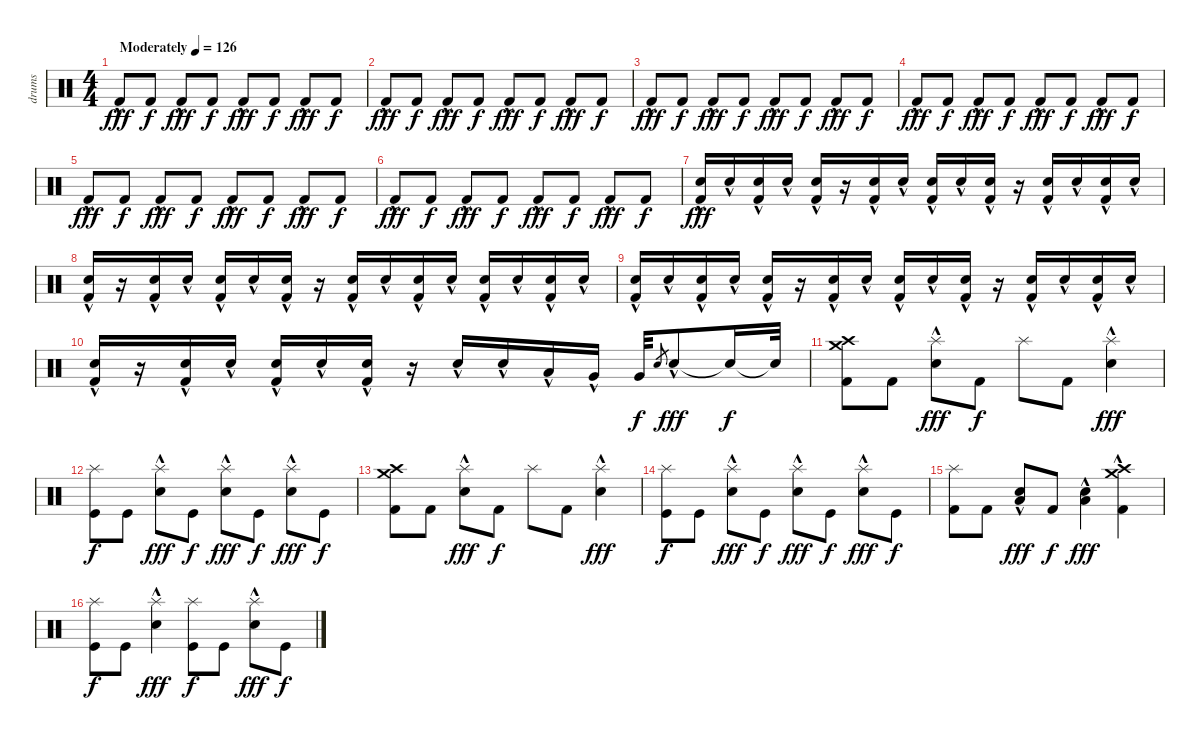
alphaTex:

\track ("drums" "drums") {instrument percussion}
\staff {score}
\articulation defaults
\ts (4 4)
\tempo (126 "Moderately")
\clef neutral
\ks c "Kick (hit) 2"{hac}.8{dy fff} "Kick (hit) 2".8{dy f} "Kick (hit) 2"{hac}.8{dy fff} "Kick (hit) 2".8{dy f} "Kick (hit) 2"{hac}.8{dy fff} "Kick (hit) 2".8{dy f} "Kick (hit) 2"{hac}.8{dy fff} "Kick (hit) 2".8{dy f}
|
"Kick (hit) 2"{hac}.8{dy fff} "Kick (hit) 2".8{dy f} "Kick (hit) 2"{hac}.8{dy fff} "Kick (hit) 2".8{dy f} "Kick (hit) 2"{hac}.8{dy fff} "Kick (hit) 2".8{dy f} "Kick (hit) 2"{hac}.8{dy fff} "Kick (hit) 2".8{dy f} |
"Kick (hit) 2"{hac}.8{dy fff} "Kick (hit) 2".8{dy f} "Kick (hit) 2"{hac}.8{dy fff} "Kick (hit) 2".8{dy f} "Kick (hit) 2"{hac}.8{dy fff} "Kick (hit) 2".8{dy f} "Kick (hit) 2"{hac}.8{dy fff} "Kick (hit) 2".8{dy f} |
"Kick (hit) 2"{hac}.8{dy fff} "Kick (hit) 2".8{dy f} "Kick (hit) 2"{hac}.8{dy fff} "Kick (hit) 2".8{dy f} "Kick (hit) 2"{hac}.8{dy fff} "Kick (hit) 2".8{dy f} "Kick (hit) 2"{hac}.8{dy fff} "Kick (hit) 2".8{dy f} |
"Kick (hit) 2"{hac}.8{dy fff} "Kick (hit) 2".8{dy f} "Kick (hit) 2"{hac}.8{dy fff} "Kick (hit) 2".8{dy f} "Kick (hit) 2"{hac}.8{dy fff} "Kick (hit) 2".8{dy f} "Kick (hit) 2"{hac}.8{dy fff} "Kick (hit) 2".8{dy f} |
"Kick (hit) 2"{hac}.8{dy fff} "Kick (hit) 2".8{dy f} "Kick (hit) 2"{hac}.8{dy fff} "Kick (hit) 2".8{dy f} "Kick (hit) 2"{hac}.8{dy fff} "Kick (hit) 2".8{dy f} "Kick (hit) 2"{hac}.8{dy fff} "Kick (hit) 2".8{dy f} |
("Electric Snare (hit)"{hac} "Kick (hit) 2"{hac}).16{dy fff} "Electric Snare (hit)"{hac}.16 ("Electric Snare (hit)"{hac} "Kick (hit) 2"{hac}).16 "Electric Snare (hit)"{hac}.16 ("Electric Snare (hit)"{hac} "Kick (hit) 2"{hac}).16 r.16 ("Electric Snare (hit)"{hac} "Kick (hit) 2"{hac}).16 "Electric Snare (hit)"{hac}.16 ("Electric Snare (hit)"{hac} "Kick (hit) 2"{hac}).16 "Electric Snare (hit)"{hac}.16 ("Electric Snare (hit)"{hac} "Kick (hit) 2"{hac}).16 r.16 ("Electric Snare (hit)"{hac} "Kick (hit) 2"{hac}).16 "Electric Snare (hit)"{hac}.16 ("Electric Snare (hit)"{hac} "Kick (hit) 2"{hac}).16 "Electric Snare (hit)"{hac}.16 |
("Electric Snare (hit)"{hac} "Kick (hit) 2"{hac}).16 r.16 ("Electric Snare (hit)"{hac} "Kick (hit) 2"{hac}).16 "Electric Snare (hit)"{hac}.16 ("Electric Snare (hit)"{hac} "Kick (hit) 2"{hac}).16 "Electric Snare (hit)"{hac}.16 ("Electric Snare (hit)"{hac} "Kick (hit) 2"{hac}).16 r.16 ("Electric Snare (hit)"{hac} "Kick (hit) 2"{hac}).16 "Electric Snare (hit)"{hac}.16 ("Electric Snare (hit)"{hac} "Kick (hit) 2"{hac}).16 "Electric Snare (hit)"{hac}.16 ("Electric Snare (hit)"{hac} "Kick (hit) 2"{hac}).16 "Electric Snare (hit)"{hac}.16 ("Electric Snare (hit)"{hac} "Kick (hit) 2"{hac}).16 "Electric Snare (hit)"{hac}.16 |
("Electric Snare (hit)"{hac} "Kick (hit) 2"{hac}).16 "Electric Snare (hit)"{hac}.16 ("Electric Snare (hit)"{hac} "Kick (hit) 2"{hac}).16 "Electric Snare (hit)"{hac}.16 ("Electric Snare (hit)"{hac} "Kick (hit) 2"{hac}).16 r.16 ("Electric Snare (hit)"{hac} "Kick (hit) 2"{hac}).16 "Electric Snare (hit)"{hac}.16 ("Electric Snare (hit)"{hac} "Kick (hit) 2"{hac}).16 "Electric Snare (hit)"{hac}.16 ("Electric Snare (hit)"{hac} "Kick (hit) 2"{hac}).16 r.16 ("Electric Snare (hit)"{hac} "Kick (hit) 2"{hac}).16 "Electric Snare (hit)"{hac}.16 ("Electric Snare (hit)"{hac} "Kick (hit) 2"{hac}).16 "Electric Snare (hit)"{hac}.16 |
("Electric Snare (hit)"{hac} "Kick (hit) 2"{hac}).16 r.16 ("Electric Snare (hit)"{hac} "Kick (hit) 2"{hac}).16 "Electric Snare (hit)"{hac}.16 ("Electric Snare (hit)"{hac} "Kick (hit) 2"{hac}).16 "Electric Snare (hit)"{hac}.16 ("Electric Snare (hit)"{hac} "Kick (hit) 2"{hac}).16 r.16 "Electric Snare (hit)"{hac}.16 "Electric Snare (hit)"{hac}.16 "Low Floor Tom (hit)"{hac}.16 "Very Low Tom (hit)"{hac}.16 "Very Low Tom (hit)".32{dy f} "Electric Snare (hit)".8{gr} "Electric Snare (hit)"{hac}.8{dy fff} "Snare (hit)"{t}.16{dy f} "Snare (hit)"{t}.32 |
("Crash high (hit)" "Crash medium (hit)" "Kick (hit) 2").8 "Kick (hit) 2".8 ("Electric Snare (hit)"{hac} "Splash (hit)").8{dy fff} "Kick (hit) 2".8{dy f} "Splash (hit)".8 "Kick (hit) 2".8 ("Electric Snare (hit)"{hac} "Splash (hit)").4{dy fff} |
("Splash (hit)" "Kick (hit)").8{dy f} "Kick (hit)".8 ("Electric Snare (hit)"{hac} "Splash (hit)").8{dy fff} "Kick (hit)".8{dy f} ("Electric Snare (hit)"{hac} "Splash (hit)").8{dy fff} "Kick (hit)".8{dy f} ("Electric Snare (hit)"{hac} "Splash (hit)").8{dy fff} "Kick (hit)".8{dy f} |
("Crash high (hit)" "Crash medium (hit)" "Kick (hit) 2").8 "Kick (hit) 2".8 ("Electric Snare (hit)"{hac} "Splash (hit)").8{dy fff} "Kick (hit) 2".8{dy f} "Splash (hit)".8 "Kick (hit) 2".8 ("Electric Snare (hit)"{hac} "Splash (hit)").4{dy fff} |
("Splash (hit)" "Kick (hit)").8{dy f} "Kick (hit)".8 ("Electric Snare (hit)"{hac} "Splash (hit)").8{dy fff} "Kick (hit)".8{dy f} ("Electric Snare (hit)"{hac} "Splash (hit)").8{dy fff} "Kick (hit)".8{dy f} ("Electric Snare (hit)"{hac} "Splash (hit)").8{dy fff} "Kick (hit)".8{dy f} |
("Splash (hit)" "Kick (hit) 2").8 "Kick (hit) 2".8 ("Electric Snare (hit)"{hac} "Low Floor Tom (hit)").8{dy fff} "Kick (hit) 2".8{dy f} ("Electric Snare (hit)"{hac} "Low Tom (hit)").4{dy fff} ("Crash high (hit)"{hac} "Crash medium (hit)"{hac} "Kick (hit) 2"{hac}).4 |
("Splash (hit)" "Kick (hit)").8{dy f} "Kick (hit)".8 ("Electric Snare (hit)"{hac} "Splash (hit)").4{dy fff} ("Splash (hit)" "Kick (hit)").8{dy f} "Kick (hit)".8 ("Electric Snare (hit)"{hac} "Splash (hit)").8{dy fff} "Kick (hit)".8{dy f}
